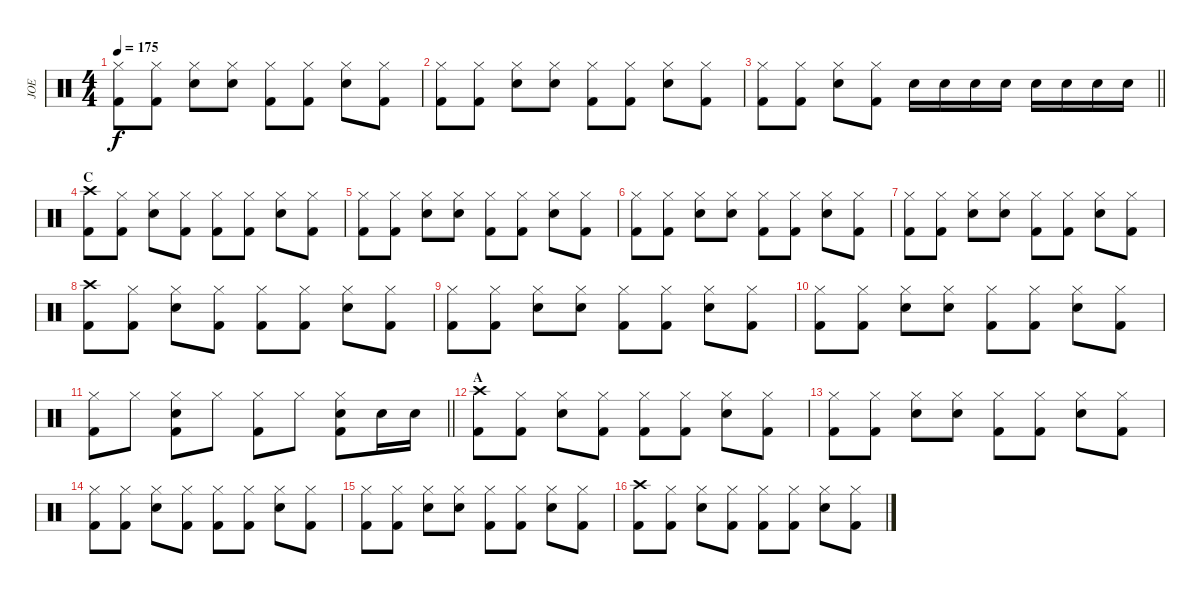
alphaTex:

\track ("JOE" "JOE") {instrument percussion}
\staff {score}
\articulation defaults
\ts (4 4)
\tempo 175
\clef neutral
\ks c
("Hi-Hat (closed)" "Kick (hit) 2").8{dy f} ("Hi-Hat (closed)" "Kick (hit) 2").8 ("Hi-Hat (closed)" "Snare (hit) 2").8 ("Hi-Hat (closed)" "Snare (hit) 2").8 ("Hi-Hat (closed)" "Kick (hit) 2").8 ("Hi-Hat (closed)" "Kick (hit) 2").8 ("Hi-Hat (closed)" "Snare (hit) 2").8 ("Hi-Hat (closed)" "Kick (hit) 2").8 |
("Hi-Hat (closed)" "Kick (hit) 2").8 ("Hi-Hat (closed)" "Kick (hit) 2").8 ("Hi-Hat (closed)" "Snare (hit) 2").8 ("Hi-Hat (closed)" "Snare (hit) 2").8 ("Hi-Hat (closed)" "Kick (hit) 2").8 ("Hi-Hat (closed)" "Kick (hit) 2").8 ("Hi-Hat (closed)" "Snare (hit) 2").8 ("Hi-Hat (closed)" "Kick (hit) 2").8 |
\barLineRight lightlight
("Hi-Hat (closed)" "Kick (hit) 2").8 ("Hi-Hat (closed)" "Kick (hit) 2").8 ("Hi-Hat (closed)" "Snare (hit) 2").8 ("Hi-Hat (closed)" "Kick (hit) 2").8 "Snare (hit) 2".16 "Snare (hit) 2".16 "Snare (hit) 2".16 "Snare (hit) 2".16 "Snare (hit) 2".16 "Snare (hit) 2".16 "Snare (hit) 2".16 "Snare (hit) 2".16 |
\section ("" "C")
("Crash high (hit)" "Kick (hit) 2").8 ("Hi-Hat (closed)" "Kick (hit) 2").8 ("Hi-Hat (closed)" "Snare (hit) 2").8 ("Hi-Hat (closed)" "Kick (hit) 2").8 ("Hi-Hat (closed)" "Kick (hit) 2").8 ("Hi-Hat (closed)" "Kick (hit) 2").8 ("Hi-Hat (closed)" "Snare (hit) 2").8 ("Hi-Hat (closed)" "Kick (hit) 2").8 |
("Hi-Hat (closed)" "Kick (hit) 2").8 ("Hi-Hat (closed)" "Kick (hit) 2").8 ("Hi-Hat (closed)" "Snare (hit) 2").8 ("Hi-Hat (closed)" "Snare (hit) 2").8 ("Hi-Hat (closed)" "Kick (hit) 2").8 ("Hi-Hat (closed)" "Kick (hit) 2").8 ("Hi-Hat (closed)" "Snare (hit) 2").8 ("Hi-Hat (closed)" "Kick (hit) 2").8 |
("Hi-Hat (closed)" "Kick (hit) 2").8 ("Hi-Hat (closed)" "Kick (hit) 2").8 ("Hi-Hat (closed)" "Snare (hit) 2").8 ("Hi-Hat (closed)" "Snare (hit) 2").8 ("Hi-Hat (closed)" "Kick (hit) 2").8 ("Hi-Hat (closed)" "Kick (hit) 2").8 ("Hi-Hat (closed)" "Snare (hit) 2").8 ("Hi-Hat (closed)" "Kick (hit) 2").8 |
("Hi-Hat (closed)" "Kick (hit) 2").8 ("Hi-Hat (closed)" "Kick (hit) 2").8 ("Hi-Hat (closed)" "Snare (hit) 2").8 ("Hi-Hat (closed)" "Snare (hit) 2").8 ("Hi-Hat (closed)" "Kick (hit) 2").8 ("Hi-Hat (closed)" "Kick (hit) 2").8 ("Hi-Hat (closed)" "Snare (hit) 2").8 ("Hi-Hat (closed)" "Kick (hit) 2").8 |
("Crash high (hit)" "Kick (hit) 2").8 ("Hi-Hat (closed)" "Kick (hit) 2").8 ("Hi-Hat (closed)" "Snare (hit) 2").8 ("Hi-Hat (closed)" "Kick (hit) 2").8 ("Hi-Hat (closed)" "Kick (hit) 2").8 ("Hi-Hat (closed)" "Kick (hit) 2").8 ("Hi-Hat (closed)" "Snare (hit) 2").8 ("Hi-Hat (closed)" "Kick (hit) 2").8 |
("Hi-Hat (closed)" "Kick (hit) 2").8 ("Hi-Hat (closed)" "Kick (hit) 2").8 ("Hi-Hat (closed)" "Snare (hit) 2").8 ("Hi-Hat (closed)" "Snare (hit) 2").8 ("Hi-Hat (closed)" "Kick (hit) 2").8 ("Hi-Hat (closed)" "Kick (hit) 2").8 ("Hi-Hat (closed)" "Snare (hit) 2").8 ("Hi-Hat (closed)" "Kick (hit) 2").8 |
("Hi-Hat (closed)" "Kick (hit) 2").8 ("Hi-Hat (closed)" "Kick (hit) 2").8 ("Hi-Hat (closed)" "Snare (hit) 2").8 ("Hi-Hat (closed)" "Snare (hit) 2").8 ("Hi-Hat (closed)" "Kick (hit) 2").8 ("Hi-Hat (closed)" "Kick (hit) 2").8 ("Hi-Hat (closed)" "Snare (hit) 2").8 ("Hi-Hat (closed)" "Kick (hit) 2").8 |
\barLineRight lightlight
("Hi-Hat (closed)" "Kick (hit) 2").8 "Hi-Hat (closed)".8 ("Hi-Hat (closed)" "Snare (hit) 2" "Kick (hit) 2").8 "Hi-Hat (closed)".8 ("Hi-Hat (closed)" "Kick (hit) 2").8 "Hi-Hat (closed)".8 ("Hi-Hat (closed)" "Snare (hit) 2" "Kick (hit) 2").8 "Snare (hit) 2".16 "Snare (hit) 2".16 |
\section ("" "A ")
("Crash high (hit)" "Kick (hit) 2").8 ("Hi-Hat (closed)" "Kick (hit) 2").8 ("Hi-Hat (closed)" "Snare (hit) 2").8 ("Hi-Hat (closed)" "Kick (hit) 2").8 ("Hi-Hat (closed)" "Kick (hit) 2").8 ("Hi-Hat (closed)" "Kick (hit) 2").8 ("Hi-Hat (closed)" "Snare (hit) 2").8 ("Hi-Hat (closed)" "Kick (hit) 2").8 |
("Hi-Hat (closed)" "Kick (hit) 2").8 ("Hi-Hat (closed)" "Kick (hit) 2").8 ("Hi-Hat (closed)" "Snare (hit) 2").8 ("Hi-Hat (closed)" "Snare (hit) 2").8 ("Hi-Hat (closed)" "Kick (hit) 2").8 ("Hi-Hat (closed)" "Kick (hit) 2").8 ("Hi-Hat (closed)" "Snare (hit) 2").8 ("Hi-Hat (closed)" "Kick (hit) 2").8 |
("Hi-Hat (closed)" "Kick (hit) 2").8 ("Hi-Hat (closed)" "Kick (hit) 2").8 ("Hi-Hat (closed)" "Snare (hit) 2").8 ("Hi-Hat (closed)" "Kick (hit) 2").8 ("Hi-Hat (closed)" "Kick (hit) 2").8 ("Hi-Hat (closed)" "Kick (hit) 2").8 ("Hi-Hat (closed)" "Snare (hit) 2").8 ("Hi-Hat (closed)" "Kick (hit) 2").8 |
("Hi-Hat (closed)" "Kick (hit) 2").8 ("Hi-Hat (closed)" "Kick (hit) 2").8 ("Hi-Hat (closed)" "Snare (hit) 2").8 ("Hi-Hat (closed)" "Snare (hit) 2").8 ("Hi-Hat (closed)" "Kick (hit) 2").8 ("Hi-Hat (closed)" "Kick (hit) 2").8 ("Hi-Hat (closed)" "Snare (hit) 2").8 ("Hi-Hat (closed)" "Kick (hit) 2").8 |
("Crash high (hit)" "Kick (hit) 2").8 ("Hi-Hat (closed)" "Kick (hit) 2").8 ("Hi-Hat (closed)" "Snare (hit) 2").8 ("Hi-Hat (closed)" "Kick (hit) 2").8 ("Hi-Hat (closed)" "Kick (hit) 2").8 ("Hi-Hat (closed)" "Kick (hit) 2").8 ("Hi-Hat (closed)" "Snare (hit) 2").8 ("Hi-Hat (closed)" "Kick (hit) 2").8
